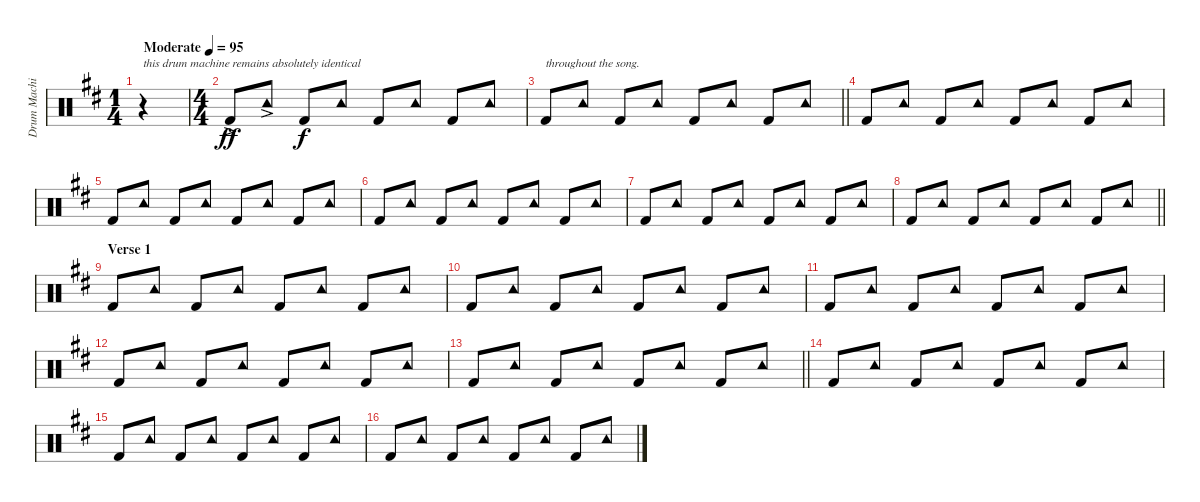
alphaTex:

\track ("Drum Machine" "Drum Machi") {instrument percussion}
\staff {score}
\articulation defaults
\ts (1 4)
\tempo (95 "Moderate")
\clef neutral
\ks d
r.4{txt "this drum machine remains absolutely identical" dy ff} |
\ts (4 4)
"Kick (hit) 2"{ac}.8{volume 12} "Tambourine (hit)"{ac}.8 "Kick (hit) 2".8{dy f volume 6} "Tambourine (hit)".8 "Kick (hit) 2".8 "Tambourine (hit)".8 "Kick (hit) 2".8 "Tambourine (hit)".8 |
\barLineRight lightlight "Kick (hit) 2".8{txt "throughout the song."} "Tambourine (hit)".8 "Kick (hit) 2".8 "Tambourine (hit)".8 "Kick (hit) 2".8 "Tambourine (hit)".8 "Kick (hit) 2".8 "Tambourine (hit)".8
|
\section ("" "")
"Kick (hit) 2".8 "Tambourine (hit)".8 "Kick (hit) 2".8 "Tambourine (hit)".8 "Kick (hit) 2".8 "Tambourine (hit)".8 "Kick (hit) 2".8 "Tambourine (hit)".8 |
"Kick (hit) 2".8 "Tambourine (hit)".8 "Kick (hit) 2".8 "Tambourine (hit)".8 "Kick (hit) 2".8 "Tambourine (hit)".8 "Kick (hit) 2".8 "Tambourine (hit)".8 |
"Kick (hit) 2".8 "Tambourine (hit)".8 "Kick (hit) 2".8 "Tambourine (hit)".8 "Kick (hit) 2".8 "Tambourine (hit)".8 "Kick (hit) 2".8 "Tambourine (hit)".8 |
"Kick (hit) 2".8 "Tambourine (hit)".8 "Kick (hit) 2".8 "Tambourine (hit)".8 "Kick (hit) 2".8 "Tambourine (hit)".8 "Kick (hit) 2".8 "Tambourine (hit)".8 |
\barLineRight lightlight "Kick (hit) 2".8 "Tambourine (hit)".8 "Kick (hit) 2".8 "Tambourine (hit)".8 "Kick (hit) 2".8 "Tambourine (hit)".8 "Kick (hit) 2".8 "Tambourine (hit)".8
|
\section ("" "Verse 1")
"Kick (hit) 2".8 "Tambourine (hit)".8 "Kick (hit) 2".8 "Tambourine (hit)".8 "Kick (hit) 2".8 "Tambourine (hit)".8 "Kick (hit) 2".8 "Tambourine (hit)".8 |
"Kick (hit) 2".8 "Tambourine (hit)".8 "Kick (hit) 2".8 "Tambourine (hit)".8 "Kick (hit) 2".8 "Tambourine (hit)".8 "Kick (hit) 2".8 "Tambourine (hit)".8 |
"Kick (hit) 2".8 "Tambourine (hit)".8 "Kick (hit) 2".8 "Tambourine (hit)".8 "Kick (hit) 2".8 "Tambourine (hit)".8 "Kick (hit) 2".8 "Tambourine (hit)".8 |
"Kick (hit) 2".8 "Tambourine (hit)".8 "Kick (hit) 2".8 "Tambourine (hit)".8 "Kick (hit) 2".8 "Tambourine (hit)".8 "Kick (hit) 2".8 "Tambourine (hit)".8 |
\barLineRight lightlight "Kick (hit) 2".8 "Tambourine (hit)".8 "Kick (hit) 2".8 "Tambourine (hit)".8 "Kick (hit) 2".8 "Tambourine (hit)".8 "Kick (hit) 2".8 "Tambourine (hit)".8
|
\section ("" "")
"Kick (hit) 2".8 "Tambourine (hit)".8 "Kick (hit) 2".8 "Tambourine (hit)".8 "Kick (hit) 2".8 "Tambourine (hit)".8 "Kick (hit) 2".8 "Tambourine (hit)".8 |
"Kick (hit) 2".8 "Tambourine (hit)".8 "Kick (hit) 2".8 "Tambourine (hit)".8 "Kick (hit) 2".8 "Tambourine (hit)".8 "Kick (hit) 2".8 "Tambourine (hit)".8 |
"Kick (hit) 2".8 "Tambourine (hit)".8 "Kick (hit) 2".8 "Tambourine (hit)".8 "Kick (hit) 2".8 "Tambourine (hit)".8 "Kick (hit) 2".8 "Tambourine (hit)".8
